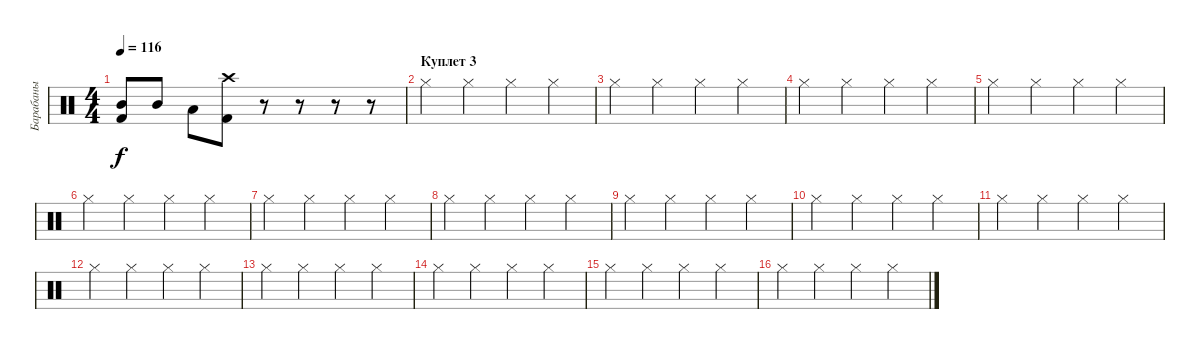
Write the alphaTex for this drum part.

\track ("Барабаны" "Барабаны") {instrument percussion}
\staff {score}
\articulation defaults
\ts (4 4)
\tempo 116
\clef neutral
\ks c
("Mid Tom (hit)" "Kick (hit) 2").8{dy f} "Mid Tom (hit)".8 "Low Tom (hit)".8 ("Crash high (hit)" "Kick (hit) 2").8 r.8 r.8 r.8 r.8 |
\section ("" "Куплет 3")
"Hi-Hat (closed)".4{volume 7} "Hi-Hat (closed)".4 "Hi-Hat (closed)".4 "Hi-Hat (closed)".4 |
"Hi-Hat (closed)".4 "Hi-Hat (closed)".4 "Hi-Hat (closed)".4 "Hi-Hat (closed)".4 |
"Hi-Hat (closed)".4 "Hi-Hat (closed)".4 "Hi-Hat (closed)".4 "Hi-Hat (closed)".4 |
"Hi-Hat (closed)".4 "Hi-Hat (closed)".4 "Hi-Hat (closed)".4 "Hi-Hat (closed)".4 |
"Hi-Hat (closed)".4 "Hi-Hat (closed)".4 "Hi-Hat (closed)".4 "Hi-Hat (closed)".4 |
"Hi-Hat (closed)".4 "Hi-Hat (closed)".4 "Hi-Hat (closed)".4 "Hi-Hat (closed)".4 |
"Hi-Hat (closed)".4 "Hi-Hat (closed)".4 "Hi-Hat (closed)".4 "Hi-Hat (closed)".4 |
"Hi-Hat (closed)".4 "Hi-Hat (closed)".4 "Hi-Hat (closed)".4 "Hi-Hat (closed)".4 |
"Hi-Hat (closed)".4 "Hi-Hat (closed)".4 "Hi-Hat (closed)".4 "Hi-Hat (closed)".4 |
"Hi-Hat (closed)".4 "Hi-Hat (closed)".4 "Hi-Hat (closed)".4 "Hi-Hat (closed)".4 |
"Hi-Hat (closed)".4 "Hi-Hat (closed)".4 "Hi-Hat (closed)".4 "Hi-Hat (closed)".4 |
"Hi-Hat (closed)".4 "Hi-Hat (closed)".4 "Hi-Hat (closed)".4 "Hi-Hat (closed)".4 |
"Hi-Hat (closed)".4 "Hi-Hat (closed)".4 "Hi-Hat (closed)".4 "Hi-Hat (closed)".4 |
"Hi-Hat (closed)".4 "Hi-Hat (closed)".4 "Hi-Hat (closed)".4 "Hi-Hat (closed)".4 |
"Hi-Hat (closed)".4 "Hi-Hat (closed)".4 "Hi-Hat (closed)".4 "Hi-Hat (closed)".4
